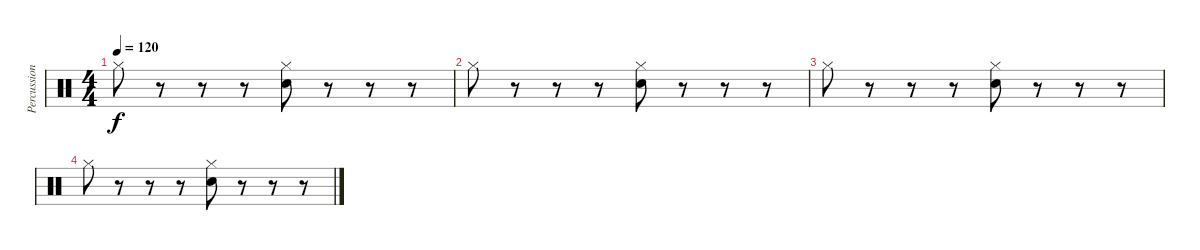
\track ("Percussion" "Percussion") {instrument percussion}
\staff {score}
\articulation defaults
\ts (4 4)
\tempo 120
\clef neutral
\ks c "Hi-Hat (closed)".8{dy f volume 4}
r.8 r.8 r.8 ("Hi-Hat (closed)" "Snare (hit) 2").8 r.8 r.8 r.8 |
"Hi-Hat (closed)".8 r.8 r.8 r.8 ("Hi-Hat (closed)" "Snare (hit) 2").8 r.8 r.8 r.8 |
"Hi-Hat (closed)".8{volume 4} r.8 r.8 r.8 ("Hi-Hat (closed)" "Snare (hit) 2").8 r.8 r.8 r.8 |
"Hi-Hat (closed)".8 r.8 r.8 r.8 ("Hi-Hat (closed)" "Snare (hit) 2").8 r.8 r.8 r.8
